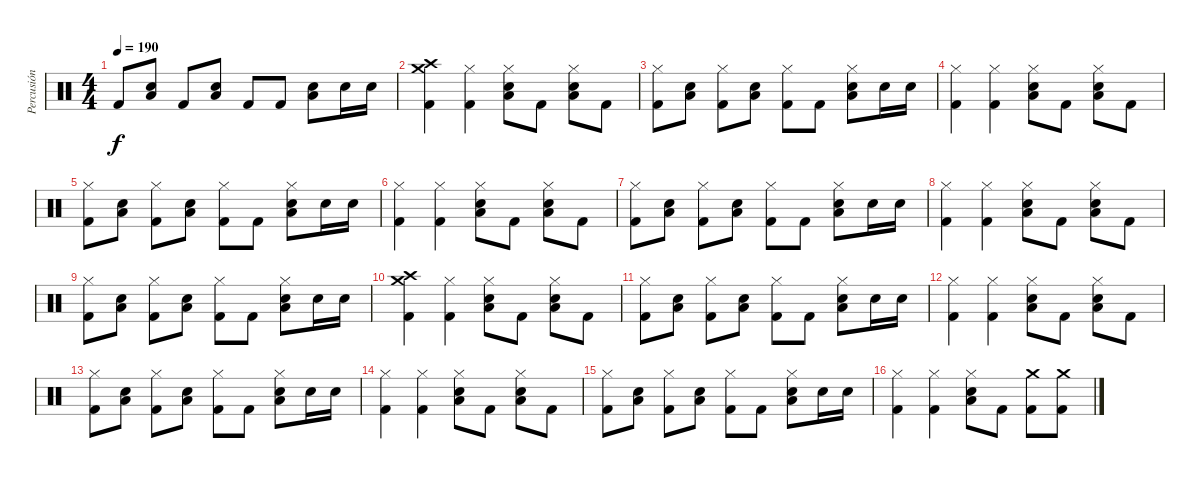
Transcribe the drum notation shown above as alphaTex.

\track ("Percusión" "Percusión") {instrument percussion}
\staff {score}
\articulation defaults
\ts (4 4)
\tempo 190
\clef neutral
\ks c "Kick (hit) 2".8{dy f}
("Low Tom (hit)" "Snare (hit) 2").8 "Kick (hit) 2".8 ("Low Tom (hit)" "Snare (hit) 2").8 "Kick (hit) 2".8 "Kick (hit) 2".8 ("Low Tom (hit)" "Snare (hit) 2").8 "Snare (hit) 2".16 "Snare (hit) 2".16 |
("Crash medium (hit)" "Crash high (hit)" "Kick (hit) 2").4 ("Hi-Hat (closed)" "Kick (hit) 2").4 ("Hi-Hat (closed)" "Low Tom (hit)" "Snare (hit) 2").8 "Kick (hit) 2".8 ("Hi-Hat (closed)" "Low Tom (hit)" "Snare (hit) 2").8 "Kick (hit) 2".8 |
("Hi-Hat (closed)" "Kick (hit) 2").8 ("Low Tom (hit)" "Snare (hit) 2").8 ("Hi-Hat (closed)" "Kick (hit) 2").8 ("Low Tom (hit)" "Snare (hit) 2").8 ("Hi-Hat (closed)" "Kick (hit) 2").8 "Kick (hit) 2".8 ("Hi-Hat (closed)" "Low Tom (hit)" "Snare (hit) 2").8 "Snare (hit) 2".16 "Snare (hit) 2".16 |
("Hi-Hat (closed)" "Kick (hit) 2").4 ("Hi-Hat (closed)" "Kick (hit) 2").4 ("Hi-Hat (closed)" "Low Tom (hit)" "Snare (hit) 2").8 "Kick (hit) 2".8 ("Hi-Hat (closed)" "Low Tom (hit)" "Snare (hit) 2").8 "Kick (hit) 2".8 |
("Hi-Hat (closed)" "Kick (hit) 2").8 ("Low Tom (hit)" "Snare (hit) 2").8 ("Hi-Hat (closed)" "Kick (hit) 2").8 ("Low Tom (hit)" "Snare (hit) 2").8 ("Hi-Hat (closed)" "Kick (hit) 2").8 "Kick (hit) 2".8 ("Hi-Hat (closed)" "Low Tom (hit)" "Snare (hit) 2").8 "Snare (hit) 2".16 "Snare (hit) 2".16 |
("Hi-Hat (closed)" "Kick (hit) 2").4 ("Hi-Hat (closed)" "Kick (hit) 2").4 ("Hi-Hat (closed)" "Low Tom (hit)" "Snare (hit) 2").8 "Kick (hit) 2".8 ("Hi-Hat (closed)" "Low Tom (hit)" "Snare (hit) 2").8 "Kick (hit) 2".8 |
("Hi-Hat (closed)" "Kick (hit) 2").8 ("Low Tom (hit)" "Snare (hit) 2").8 ("Hi-Hat (closed)" "Kick (hit) 2").8 ("Low Tom (hit)" "Snare (hit) 2").8 ("Hi-Hat (closed)" "Kick (hit) 2").8 "Kick (hit) 2".8 ("Hi-Hat (closed)" "Low Tom (hit)" "Snare (hit) 2").8 "Snare (hit) 2".16 "Snare (hit) 2".16 |
("Hi-Hat (closed)" "Kick (hit) 2").4 ("Hi-Hat (closed)" "Kick (hit) 2").4 ("Hi-Hat (closed)" "Low Tom (hit)" "Snare (hit) 2").8 "Kick (hit) 2".8 ("Hi-Hat (closed)" "Low Tom (hit)" "Snare (hit) 2").8 "Kick (hit) 2".8 |
("Hi-Hat (closed)" "Kick (hit) 2").8 ("Low Tom (hit)" "Snare (hit) 2").8 ("Hi-Hat (closed)" "Kick (hit) 2").8 ("Low Tom (hit)" "Snare (hit) 2").8 ("Hi-Hat (closed)" "Kick (hit) 2").8 "Kick (hit) 2".8 ("Hi-Hat (closed)" "Low Tom (hit)" "Snare (hit) 2").8 "Snare (hit) 2".16 "Snare (hit) 2".16 |
("Crash medium (hit)" "Crash high (hit)" "Kick (hit) 2").4 ("Hi-Hat (closed)" "Kick (hit) 2").4 ("Hi-Hat (closed)" "Low Tom (hit)" "Snare (hit) 2").8 "Kick (hit) 2".8 ("Hi-Hat (closed)" "Low Tom (hit)" "Snare (hit) 2").8 "Kick (hit) 2".8 |
("Hi-Hat (closed)" "Kick (hit) 2").8 ("Low Tom (hit)" "Snare (hit) 2").8 ("Hi-Hat (closed)" "Kick (hit) 2").8 ("Low Tom (hit)" "Snare (hit) 2").8 ("Hi-Hat (closed)" "Kick (hit) 2").8 "Kick (hit) 2".8 ("Hi-Hat (closed)" "Low Tom (hit)" "Snare (hit) 2").8 "Snare (hit) 2".16 "Snare (hit) 2".16 |
("Hi-Hat (closed)" "Kick (hit) 2").4 ("Hi-Hat (closed)" "Kick (hit) 2").4 ("Hi-Hat (closed)" "Low Tom (hit)" "Snare (hit) 2").8 "Kick (hit) 2".8 ("Hi-Hat (closed)" "Low Tom (hit)" "Snare (hit) 2").8 "Kick (hit) 2".8 |
("Hi-Hat (closed)" "Kick (hit) 2").8 ("Low Tom (hit)" "Snare (hit) 2").8 ("Hi-Hat (closed)" "Kick (hit) 2").8 ("Low Tom (hit)" "Snare (hit) 2").8 ("Hi-Hat (closed)" "Kick (hit) 2").8 "Kick (hit) 2".8 ("Hi-Hat (closed)" "Low Tom (hit)" "Snare (hit) 2").8 "Snare (hit) 2".16 "Snare (hit) 2".16 |
("Hi-Hat (closed)" "Kick (hit) 2").4 ("Hi-Hat (closed)" "Kick (hit) 2").4 ("Hi-Hat (closed)" "Low Tom (hit)" "Snare (hit) 2").8 "Kick (hit) 2".8 ("Hi-Hat (closed)" "Low Tom (hit)" "Snare (hit) 2").8 "Kick (hit) 2".8 |
("Hi-Hat (closed)" "Kick (hit) 2").8 ("Low Tom (hit)" "Snare (hit) 2").8 ("Hi-Hat (closed)" "Kick (hit) 2").8 ("Low Tom (hit)" "Snare (hit) 2").8 ("Hi-Hat (closed)" "Kick (hit) 2").8 "Kick (hit) 2".8 ("Hi-Hat (closed)" "Low Tom (hit)" "Snare (hit) 2").8 "Snare (hit) 2".16 "Snare (hit) 2".16 |
("Hi-Hat (closed)" "Kick (hit) 2").4 ("Hi-Hat (closed)" "Kick (hit) 2").4 ("Hi-Hat (closed)" "Low Tom (hit)" "Snare (hit) 2").8 "Kick (hit) 2".8 ("Crash medium (hit)" "Kick (hit) 2").8 ("Crash medium (hit)" "Kick (hit) 2").8
